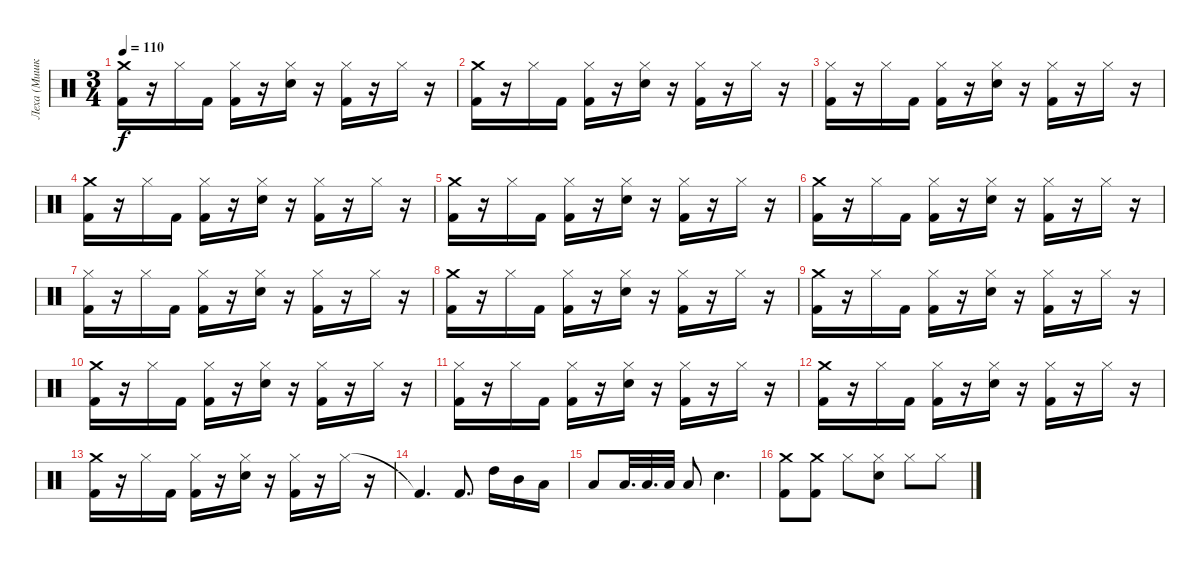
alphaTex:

\track ("Леха (Мишка Гами)" "Леха (Мишк") {instrument percussion}
\staff {score}
\articulation defaults
\ts (3 4)
\tempo 110
\clef neutral
\ks c
("Crash medium (hit)" "Kick (hit) 2").16{dy f} r.16 "Hi-Hat (closed)".16 "Kick (hit) 2".16 ("Hi-Hat (closed)" "Kick (hit) 2").16 r.16 ("Hi-Hat (closed)" "Snare (hit) 2").16 r.16 ("Hi-Hat (closed)" "Kick (hit) 2").16 r.16 "Hi-Hat (closed)".16 r.16 |
("Crash medium (hit)" "Kick (hit) 2").16 r.16 "Hi-Hat (closed)".16 "Kick (hit) 2".16 ("Hi-Hat (closed)" "Kick (hit) 2").16 r.16 ("Hi-Hat (closed)" "Snare (hit) 2").16 r.16 ("Hi-Hat (closed)" "Kick (hit) 2").16 r.16 "Hi-Hat (closed)".16 r.16 |
("Hi-Hat (closed)" "Kick (hit) 2").16 r.16 "Hi-Hat (closed)".16 "Kick (hit) 2".16 ("Hi-Hat (closed)" "Kick (hit) 2").16 r.16 ("Hi-Hat (closed)" "Snare (hit) 2").16 r.16 ("Hi-Hat (closed)" "Kick (hit) 2").16 r.16 "Hi-Hat (closed)".16 r.16 |
("Crash medium (hit)" "Kick (hit) 2").16 r.16 "Hi-Hat (closed)".16 "Kick (hit) 2".16 ("Hi-Hat (closed)" "Kick (hit) 2").16 r.16 ("Hi-Hat (closed)" "Snare (hit) 2").16 r.16 ("Hi-Hat (closed)" "Kick (hit) 2").16 r.16 "Hi-Hat (closed)".16 r.16 |
("Crash medium (hit)" "Kick (hit) 2").16 r.16 "Hi-Hat (closed)".16 "Kick (hit) 2".16 ("Hi-Hat (closed)" "Kick (hit) 2").16 r.16 ("Hi-Hat (closed)" "Snare (hit) 2").16 r.16 ("Hi-Hat (closed)" "Kick (hit) 2").16 r.16 "Hi-Hat (closed)".16 r.16 |
("Crash medium (hit)" "Kick (hit) 2").16 r.16 "Hi-Hat (closed)".16 "Kick (hit) 2".16 ("Hi-Hat (closed)" "Kick (hit) 2").16 r.16 ("Hi-Hat (closed)" "Snare (hit) 2").16 r.16 ("Hi-Hat (closed)" "Kick (hit) 2").16 r.16 "Hi-Hat (closed)".16 r.16 |
("Hi-Hat (closed)" "Kick (hit) 2").16 r.16 "Hi-Hat (closed)".16 "Kick (hit) 2".16 ("Hi-Hat (closed)" "Kick (hit) 2").16 r.16 ("Hi-Hat (closed)" "Snare (hit) 2").16 r.16 ("Hi-Hat (closed)" "Kick (hit) 2").16 r.16 "Hi-Hat (closed)".16 r.16 |
("Crash medium (hit)" "Kick (hit) 2").16 r.16 "Hi-Hat (closed)".16 "Kick (hit) 2".16 ("Hi-Hat (closed)" "Kick (hit) 2").16 r.16 ("Hi-Hat (closed)" "Snare (hit) 2").16 r.16 ("Hi-Hat (closed)" "Kick (hit) 2").16 r.16 "Hi-Hat (closed)".16 r.16 |
("Crash medium (hit)" "Kick (hit) 2").16 r.16 "Hi-Hat (closed)".16 "Kick (hit) 2".16 ("Hi-Hat (closed)" "Kick (hit) 2").16 r.16 ("Hi-Hat (closed)" "Snare (hit) 2").16 r.16 ("Hi-Hat (closed)" "Kick (hit) 2").16 r.16 "Hi-Hat (closed)".16 r.16 |
("Crash medium (hit)" "Kick (hit) 2").16 r.16 "Hi-Hat (closed)".16 "Kick (hit) 2".16 ("Hi-Hat (closed)" "Kick (hit) 2").16 r.16 ("Hi-Hat (closed)" "Snare (hit) 2").16 r.16 ("Hi-Hat (closed)" "Kick (hit) 2").16 r.16 "Hi-Hat (closed)".16 r.16 |
("Hi-Hat (closed)" "Kick (hit) 2").16 r.16 "Hi-Hat (closed)".16 "Kick (hit) 2".16 ("Hi-Hat (closed)" "Kick (hit) 2").16 r.16 ("Hi-Hat (closed)" "Snare (hit) 2").16 r.16 ("Hi-Hat (closed)" "Kick (hit) 2").16 r.16 "Hi-Hat (closed)".16 r.16 |
("Crash medium (hit)" "Kick (hit) 2").16 r.16 "Hi-Hat (closed)".16 "Kick (hit) 2".16 ("Hi-Hat (closed)" "Kick (hit) 2").16 r.16 ("Hi-Hat (closed)" "Snare (hit) 2").16 r.16 ("Hi-Hat (closed)" "Kick (hit) 2").16 r.16 "Hi-Hat (closed)".16 r.16 |
("Crash medium (hit)" "Kick (hit) 2").16 r.16 "Hi-Hat (closed)".16 "Kick (hit) 2".16 ("Hi-Hat (closed)" "Kick (hit) 2").16 r.16 ("Hi-Hat (closed)" "Snare (hit) 2").16 r.16 ("Hi-Hat (closed)" "Kick (hit) 2").16 r.16 "Hi-Hat (closed)".16 r.16 |
"Kick (hit) 2"{t}.4{d} "Kick (hit) 2".8{d} "High Tom (hit)".16 "Mid Tom (hit)".16 "Low Tom (hit)".16 |
"Low Tom (hit)".8 "Low Tom (hit)".32{d} "Low Tom (hit)".32{d} "Low Tom (hit)".32 "Low Tom (hit)".8 "Snare (hit) 2".4{d} |
("Crash medium (hit)" "Kick (hit) 2").8 ("Crash medium (hit)" "Kick (hit) 2").8 "Hi-Hat (closed)".8 ("Hi-Hat (closed)" "Snare (hit) 2").8 "Hi-Hat (closed)".8 "Hi-Hat (closed)".8
